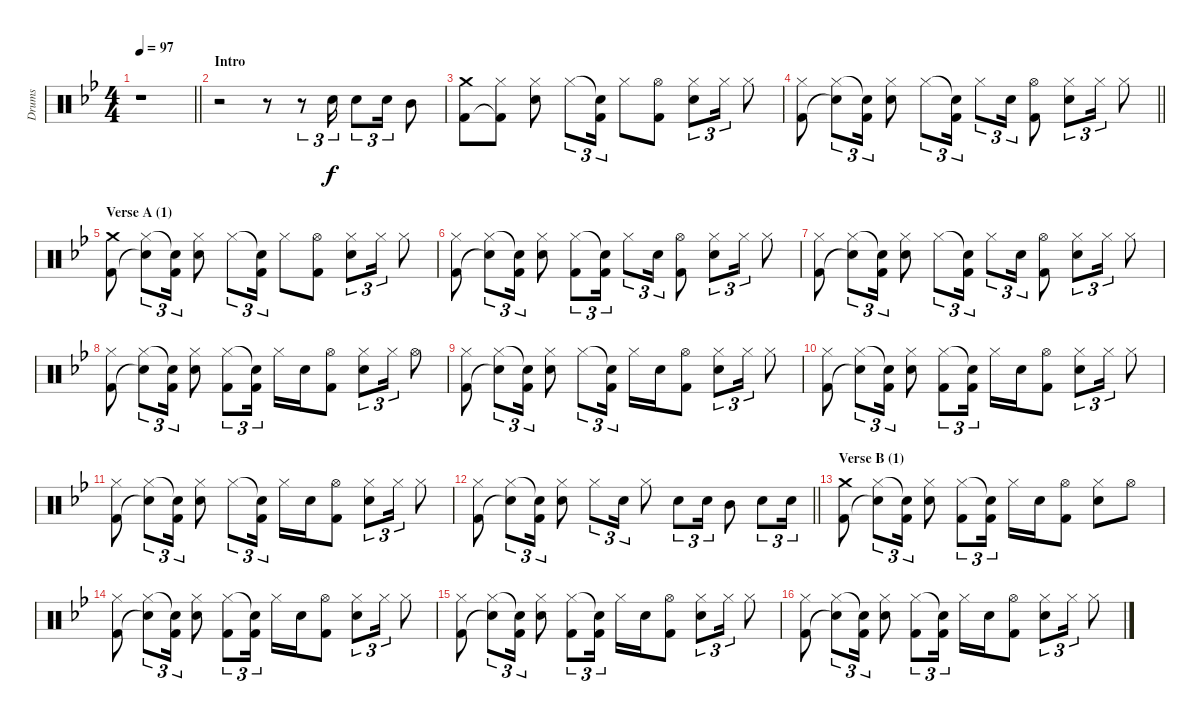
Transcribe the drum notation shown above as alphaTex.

\track ("Drums" "Drums") {instrument percussion}
\staff {score}
\articulation defaults
\ts (4 4)
\tempo 97
\clef neutral
\barLineRight lightlight
\ks bb
r.1{dy f} |
\section ("" "Intro")
r.2 r.8 r.8{tu (3 2)} "Electric Snare (hit)".16{tu (3 2)} "Electric Snare (hit)".8{tu (3 2)} "Electric Snare (hit)".16{tu (3 2)} "Mid Tom (hit)".8 |
("Crash medium (hit)" "Kick (hit) 2").8 ("Hi-Hat (closed)" "Kick (hit) 2"{t}).8 ("Hi-Hat (closed)" "Electric Snare (hit)").8 "Hi-Hat (closed)".8{tu (3 2)} ("Snare (hit)"{t} "Kick (hit) 2").16{tu (3 2)} "Hi-Hat (closed)".8 ("Hi-Hat (open)" "Kick (hit) 2").8 ("Hi-Hat (closed)" "Electric Snare (hit)").8{tu (3 2)} "Hi-Hat (closed)".16{tu (3 2)} "Hi-Hat (closed)".8 |
\barLineRight lightlight
("Hi-Hat (closed)" "Kick (hit) 2").8 ("Hi-Hat (closed)" "Snare (hit)"{t}).8{tu (3 2)} ("Snare (hit)"{t} "Kick (hit) 2").16{tu (3 2)} ("Hi-Hat (closed)" "Electric Snare (hit)").8 "Hi-Hat (closed)".8{tu (3 2)} ("Snare (hit)"{t} "Kick (hit) 2").16{tu (3 2)} "Hi-Hat (closed)".8{tu (3 2)} "Electric Snare (hit)".16{tu (3 2)} ("Hi-Hat (open)" "Kick (hit) 2").8 ("Hi-Hat (closed)" "Electric Snare (hit)").8{tu (3 2)} "Hi-Hat (closed)".16{tu (3 2)} "Hi-Hat (closed)".8 |
\section ("" "Verse A (1)")
("Crash medium (hit)" "Kick (hit) 2").8 ("Hi-Hat (closed)" "Snare (hit)"{t}).8{tu (3 2)} ("Snare (hit)"{t} "Kick (hit) 2").16{tu (3 2)} ("Hi-Hat (closed)" "Electric Snare (hit)").8 "Hi-Hat (closed)".8{tu (3 2)} ("Snare (hit)"{t} "Kick (hit) 2").16{tu (3 2)} "Hi-Hat (closed)".8 ("Hi-Hat (open)" "Kick (hit) 2").8 ("Hi-Hat (closed)" "Electric Snare (hit)").8{tu (3 2)} "Hi-Hat (closed)".16{tu (3 2)} "Hi-Hat (closed)".8 |
("Hi-Hat (closed)" "Kick (hit) 2").8 ("Hi-Hat (closed)" "Snare (hit)"{t}).8{tu (3 2)} ("Snare (hit)"{t} "Kick (hit) 2").16{tu (3 2)} ("Hi-Hat (closed)" "Electric Snare (hit)").8 ("Hi-Hat (closed)" "Kick (hit) 2").8{tu (3 2)} ("Snare (hit)"{t} "Kick (hit) 2").16{tu (3 2)} "Hi-Hat (closed)".8{tu (3 2)} "Electric Snare (hit)".16{tu (3 2)} ("Hi-Hat (open)" "Kick (hit) 2").8 ("Hi-Hat (closed)" "Electric Snare (hit)").8{tu (3 2)} "Hi-Hat (closed)".16{tu (3 2)} "Hi-Hat (closed)".8 |
("Hi-Hat (closed)" "Kick (hit) 2").8 ("Hi-Hat (closed)" "Snare (hit)"{t}).8{tu (3 2)} ("Snare (hit)"{t} "Kick (hit) 2").16{tu (3 2)} ("Hi-Hat (closed)" "Electric Snare (hit)").8 "Hi-Hat (closed)".8{tu (3 2)} ("Snare (hit)"{t} "Kick (hit) 2").16{tu (3 2)} "Hi-Hat (closed)".8{tu (3 2)} "Electric Snare (hit)".16{tu (3 2)} ("Hi-Hat (open)" "Kick (hit) 2").8 ("Hi-Hat (closed)" "Electric Snare (hit)").8{tu (3 2)} "Hi-Hat (closed)".16{tu (3 2)} "Hi-Hat (closed)".8 |
("Hi-Hat (closed)" "Kick (hit) 2").8 ("Hi-Hat (closed)" "Snare (hit)"{t}).8{tu (3 2)} ("Snare (hit)"{t} "Kick (hit) 2").16{tu (3 2)} ("Hi-Hat (closed)" "Electric Snare (hit)").8 ("Hi-Hat (closed)" "Kick (hit) 2").8{tu (3 2)} ("Snare (hit)"{t} "Kick (hit) 2").16{tu (3 2)} "Hi-Hat (closed)".16 "Electric Snare (hit)".16 ("Hi-Hat (open)" "Kick (hit) 2").8 ("Hi-Hat (closed)" "Electric Snare (hit)").8{tu (3 2)} "Hi-Hat (closed)".16{tu (3 2)} "Hi-Hat (open)".8 |
("Hi-Hat (closed)" "Kick (hit) 2").8 ("Hi-Hat (closed)" "Snare (hit)"{t}).8{tu (3 2)} ("Snare (hit)"{t} "Kick (hit) 2").16{tu (3 2)} ("Hi-Hat (closed)" "Electric Snare (hit)").8 "Hi-Hat (closed)".8{tu (3 2)} ("Snare (hit)"{t} "Kick (hit) 2").16{tu (3 2)} "Hi-Hat (closed)".16 "Electric Snare (hit)".16 ("Hi-Hat (open)" "Kick (hit) 2").8 ("Hi-Hat (closed)" "Electric Snare (hit)").8{tu (3 2)} "Hi-Hat (closed)".16{tu (3 2)} "Hi-Hat (closed)".8 |
("Hi-Hat (closed)" "Kick (hit) 2").8 ("Hi-Hat (closed)" "Snare (hit)"{t}).8{tu (3 2)} ("Snare (hit)"{t} "Kick (hit) 2").16{tu (3 2)} ("Hi-Hat (closed)" "Electric Snare (hit)").8 ("Hi-Hat (closed)" "Kick (hit) 2").8{tu (3 2)} ("Snare (hit)"{t} "Kick (hit) 2").16{tu (3 2)} "Hi-Hat (closed)".16 "Electric Snare (hit)".16 ("Hi-Hat (open)" "Kick (hit) 2").8 ("Hi-Hat (closed)" "Electric Snare (hit)").8{tu (3 2)} "Hi-Hat (closed)".16{tu (3 2)} "Hi-Hat (closed)".8 |
("Hi-Hat (closed)" "Kick (hit) 2").8 ("Hi-Hat (closed)" "Snare (hit)"{t}).8{tu (3 2)} ("Snare (hit)"{t} "Kick (hit) 2").16{tu (3 2)} ("Hi-Hat (closed)" "Electric Snare (hit)").8 "Hi-Hat (closed)".8{tu (3 2)} ("Snare (hit)"{t} "Kick (hit) 2").16{tu (3 2)} "Hi-Hat (closed)".16 "Electric Snare (hit)".16 ("Hi-Hat (open)" "Kick (hit) 2").8 ("Hi-Hat (closed)" "Electric Snare (hit)").8{tu (3 2)} "Hi-Hat (closed)".16{tu (3 2)} "Hi-Hat (closed)".8 |
\barLineRight lightlight
("Hi-Hat (closed)" "Kick (hit) 2").8 ("Hi-Hat (closed)" "Snare (hit)"{t}).8{tu (3 2)} ("Snare (hit)"{t} "Kick (hit) 2").16{tu (3 2)} ("Hi-Hat (closed)" "Electric Snare (hit)").8 "Hi-Hat (closed)".8{tu (3 2)} "Electric Snare (hit)".16{tu (3 2)} "Hi-Hat (closed)".8 "Electric Snare (hit)".8{tu (3 2)} "Electric Snare (hit)".16{tu (3 2)} "Mid Tom (hit)".8 "Electric Snare (hit)".8{tu (3 2)} "Electric Snare (hit)".16{tu (3 2)} |
\section ("" "Verse B (1)")
("Crash medium (hit)" "Kick (hit) 2").8 ("Hi-Hat (closed)" "Snare (hit)"{t}).8{tu (3 2)} ("Snare (hit)"{t} "Kick (hit) 2").16{tu (3 2)} ("Hi-Hat (closed)" "Electric Snare (hit)").8 ("Hi-Hat (closed)" "Kick (hit) 2").8{tu (3 2)} ("Snare (hit)"{t} "Kick (hit) 2").16{tu (3 2)} "Hi-Hat (closed)".16 "Electric Snare (hit)".16 ("Hi-Hat (open)" "Kick (hit) 2").8 ("Hi-Hat (closed)" "Electric Snare (hit)").8 "Hi-Hat (open)".8 |
("Hi-Hat (closed)" "Kick (hit) 2").8 ("Hi-Hat (closed)" "Snare (hit)"{t}).8{tu (3 2)} ("Snare (hit)"{t} "Kick (hit) 2").16{tu (3 2)} ("Hi-Hat (closed)" "Electric Snare (hit)").8 ("Hi-Hat (closed)" "Kick (hit) 2").8{tu (3 2)} ("Snare (hit)"{t} "Kick (hit) 2").16{tu (3 2)} "Hi-Hat (closed)".16 "Electric Snare (hit)".16 ("Hi-Hat (open)" "Kick (hit) 2").8 ("Hi-Hat (closed)" "Electric Snare (hit)").8{tu (3 2)} "Hi-Hat (closed)".16{tu (3 2)} "Hi-Hat (closed)".8 |
("Hi-Hat (closed)" "Kick (hit) 2").8 ("Hi-Hat (closed)" "Snare (hit)"{t}).8{tu (3 2)} ("Snare (hit)"{t} "Kick (hit) 2").16{tu (3 2)} ("Hi-Hat (closed)" "Electric Snare (hit)").8 ("Hi-Hat (closed)" "Kick (hit) 2").8{tu (3 2)} ("Snare (hit)"{t} "Kick (hit) 2").16{tu (3 2)} "Hi-Hat (closed)".16 "Electric Snare (hit)".16 ("Hi-Hat (open)" "Kick (hit) 2").8 ("Hi-Hat (closed)" "Electric Snare (hit)").8{tu (3 2)} "Hi-Hat (closed)".16{tu (3 2)} "Hi-Hat (closed)".8 |
("Hi-Hat (closed)" "Kick (hit) 2").8 ("Hi-Hat (closed)" "Snare (hit)"{t}).8{tu (3 2)} ("Snare (hit)"{t} "Kick (hit) 2").16{tu (3 2)} ("Hi-Hat (closed)" "Electric Snare (hit)").8 ("Hi-Hat (closed)" "Kick (hit) 2").8{tu (3 2)} ("Snare (hit)"{t} "Kick (hit) 2").16{tu (3 2)} "Hi-Hat (closed)".16 "Electric Snare (hit)".16 ("Hi-Hat (open)" "Kick (hit) 2").8 ("Hi-Hat (closed)" "Electric Snare (hit)").8{tu (3 2)} "Hi-Hat (closed)".16{tu (3 2)} "Hi-Hat (closed)".8
